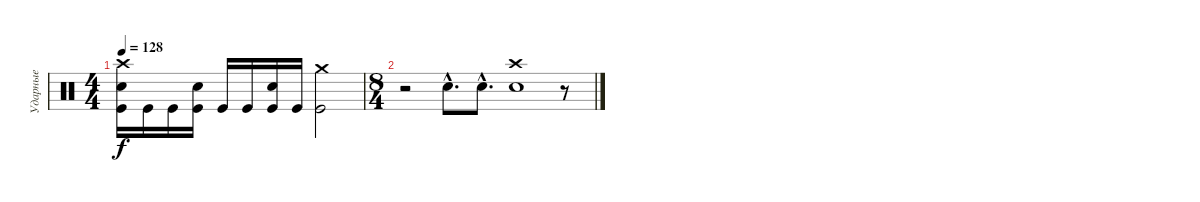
\track ("Ударные" "Ударные") {instrument percussion}
\staff {score}
\articulation defaults
\ts (4 4)
\tempo 128
\clef neutral
\ks c
("Crash high (hit)" "Electric Snare (hit)" "Kick (hit)").16{dy f} "Kick (hit)".16 "Kick (hit)".16 ("Electric Snare (hit)" "Kick (hit)").16 "Kick (hit)".16 "Kick (hit)".16 ("Electric Snare (hit)" "Kick (hit)").16 "Kick (hit)".16 ("Crash medium (hit)" "Kick (hit)").2 |
\ts (8 4)
r.2 "Electric Snare (hit)"{hac}.8{d} "Electric Snare (hit)"{hac}.8{d} ("Crash high (hit)" "Electric Snare (hit)").1 r.8
